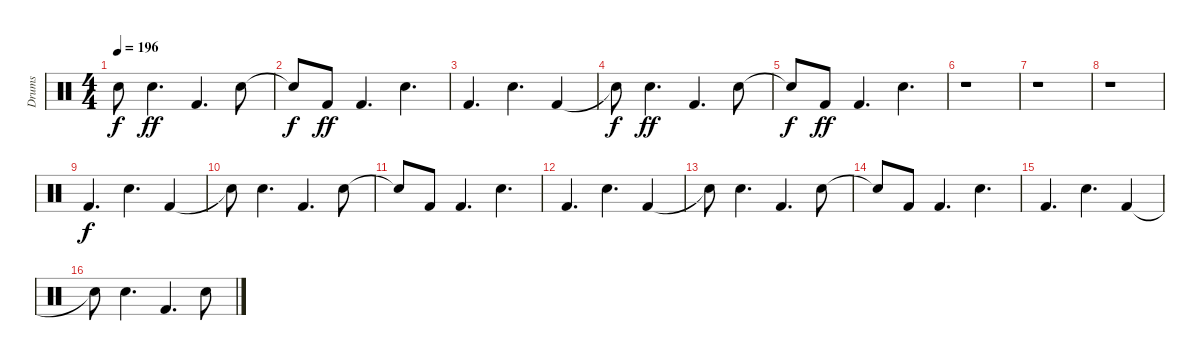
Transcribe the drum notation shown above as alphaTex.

\track ("Drums" "Drums") {instrument percussion}
\staff {score}
\articulation defaults
\ts (4 4)
\tempo 196
\clef neutral
\ks c "Snare (hit)"{t}.8{dy f} "Electric Snare (hit)".4{d dy ff} "Kick (hit) 2".4{d} "Electric Snare (hit)".8
|
"Snare (hit)"{t}.8{dy f} "Kick (hit) 2".8{dy ff} "Kick (hit) 2".4{d} "Electric Snare (hit)".4{d} |
"Kick (hit) 2".4{d} "Electric Snare (hit)".4{d} "Kick (hit) 2".4 |
"Snare (hit)"{t}.8{dy f} "Electric Snare (hit)".4{d dy ff} "Kick (hit) 2".4{d} "Electric Snare (hit)".8 |
"Snare (hit)"{t}.8{dy f} "Kick (hit) 2".8{dy ff} "Kick (hit) 2".4{d} "Electric Snare (hit)".4{d} |
r.1 |
r.1 |
r.1 |
"Kick (hit) 2".4{d dy f} "Electric Snare (hit)".4{d} "Kick (hit) 2".4 |
"Snare (hit)"{t}.8 "Electric Snare (hit)".4{d} "Kick (hit) 2".4{d} "Electric Snare (hit)".8 |
"Snare (hit)"{t}.8 "Kick (hit) 2".8 "Kick (hit) 2".4{d} "Electric Snare (hit)".4{d} |
"Kick (hit) 2".4{d} "Electric Snare (hit)".4{d} "Kick (hit) 2".4 |
"Snare (hit)"{t}.8 "Electric Snare (hit)".4{d} "Kick (hit) 2".4{d} "Electric Snare (hit)".8 |
"Snare (hit)"{t}.8 "Kick (hit) 2".8 "Kick (hit) 2".4{d} "Electric Snare (hit)".4{d} |
"Kick (hit) 2".4{d} "Electric Snare (hit)".4{d} "Kick (hit) 2".4 |
"Snare (hit)"{t}.8 "Electric Snare (hit)".4{d} "Kick (hit) 2".4{d} "Electric Snare (hit)".8
